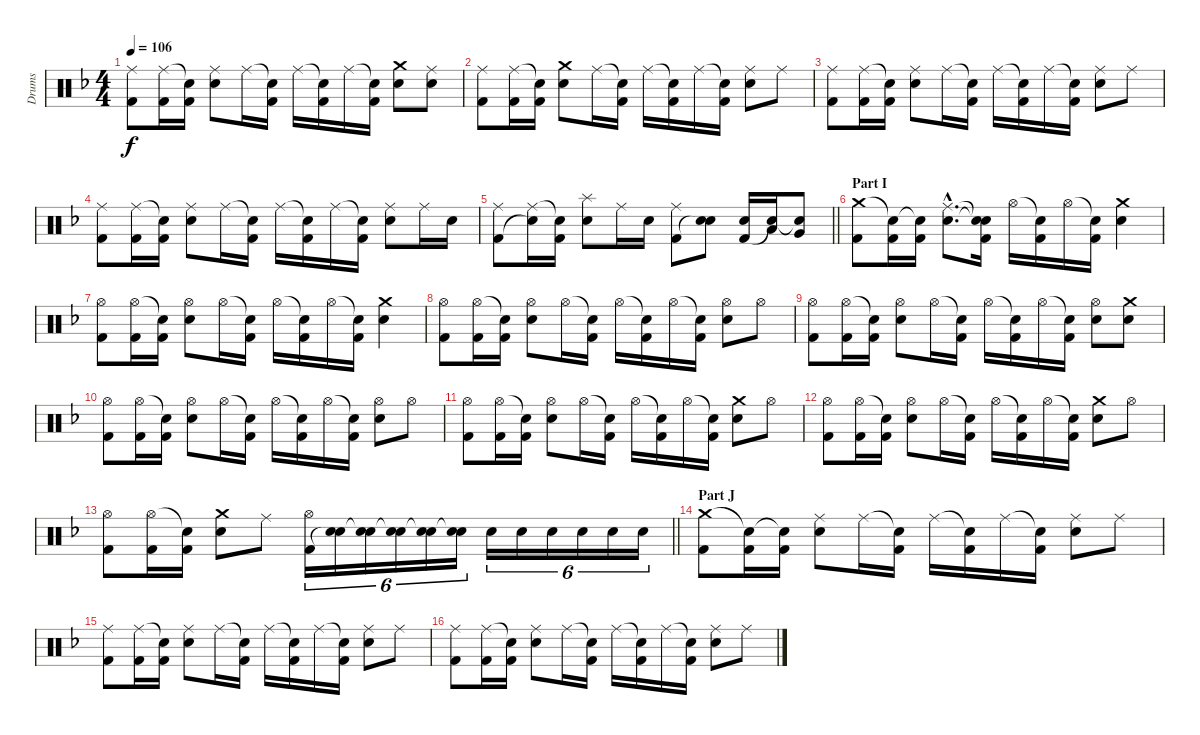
\track ("Drums" "Drums") {instrument percussion}
\staff {score}
\articulation defaults
\ts (4 4)
\tempo 106
\clef neutral
\ks f
("Ride (middle)" "Kick (hit) 2").8{dy f} ("Ride (middle)" "Kick (hit) 2").16 ("Snare (hit)"{t} "Kick (hit) 2").16 ("Ride (middle)" "Electric Snare (hit)").8 "Ride (middle)".16 ("Snare (hit)"{t} "Kick (hit) 2").16 "Ride (middle)".16 ("Snare (hit)"{t} "Kick (hit) 2").16 "Ride (middle)".16 ("Snare (hit)"{t} "Kick (hit) 2").16 ("Crash medium (hit)" "Electric Snare (hit)").8 ("Ride (middle)" "Electric Snare (hit)").8 |
("Ride (middle)" "Kick (hit) 2").8 ("Ride (middle)" "Kick (hit) 2").16 ("Snare (hit)"{t} "Kick (hit) 2").16 ("Crash medium (hit)" "Electric Snare (hit)").8 "Ride (middle)".16 ("Snare (hit)"{t} "Kick (hit) 2").16 "Ride (middle)".16 ("Snare (hit)"{t} "Kick (hit) 2").16 "Ride (middle)".16 ("Snare (hit)"{t} "Kick (hit) 2").16 ("Ride (middle)" "Electric Snare (hit)").8 "Ride (middle)".8 |
("Ride (middle)" "Kick (hit) 2").8 ("Ride (middle)" "Kick (hit) 2").16 ("Snare (hit)"{t} "Kick (hit) 2").16 ("Ride (middle)" "Electric Snare (hit)").8 "Ride (middle)".16 ("Snare (hit)"{t} "Kick (hit) 2").16 "Ride (middle)".16 ("Snare (hit)"{t} "Kick (hit) 2").16 "Ride (middle)".16 ("Snare (hit)"{t} "Kick (hit) 2").16 ("Ride (middle)" "Electric Snare (hit)").8 "Ride (middle)".8 |
("Ride (middle)" "Kick (hit) 2").8 ("Ride (middle)" "Kick (hit) 2").16 ("Snare (hit)"{t} "Kick (hit) 2").16 ("Ride (middle)" "Electric Snare (hit)").8 "Ride (middle)".16 ("Snare (hit)"{t} "Kick (hit) 2").16 "Ride (middle)".16 ("Snare (hit)"{t} "Kick (hit) 2").16 "Ride (middle)".16 ("Snare (hit)"{t} "Kick (hit) 2").16 ("Ride (middle)" "Electric Snare (hit)").8 "Ride (middle)".16 "Electric Snare (hit)".16 |
\barLineRight lightlight
("Ride (middle)" "Kick (hit) 2").8 ("Ride (middle)" "Snare (hit)"{t}).16 ("Snare (hit)"{t} "Kick (hit) 2").16 ("Splash (hit)" "Electric Snare (hit)").8 "Ride (middle)".16 "Electric Snare (hit)".16 ("Ride (middle)" "Kick (hit) 2").8 ("Electric Snare (hit)" "Snare (hit)"{t}).8 ("Electric Snare (hit)" "Kick (hit) 2").16 ("Low Tom (hit)" "Snare (hit)"{t}).16 ("Very Low Tom (hit)" "Snare (hit)"{t}).8 |
\section ("" "Part I")
("Crash medium (hit)" "Kick (hit) 2").8 ("Snare (hit)"{t} "Kick (hit) 2").16 ("Snare (hit)"{t} "Kick (hit) 2").16 ("Ride (middle)"{hac} "Electric Snare (hit)"{hac}).8{d} ("Snare (hit)"{t} "Snare (hit)"{t} "Kick (hit) 2").16 "Hi-Hat (open)".16 ("Snare (hit)"{t} "Kick (hit) 2").16 "Hi-Hat (open)".16 ("Snare (hit)"{t} "Kick (hit) 2").16 ("Crash medium (hit)" "Electric Snare (hit)").4 |
("Hi-Hat (open)" "Kick (hit) 2").8 ("Hi-Hat (open)" "Kick (hit) 2").16 ("Snare (hit)"{t} "Kick (hit) 2").16 ("Hi-Hat (open)" "Electric Snare (hit)").8 "Hi-Hat (open)".16 ("Snare (hit)"{t} "Kick (hit) 2").16 "Hi-Hat (open)".16 ("Snare (hit)"{t} "Kick (hit) 2").16 "Hi-Hat (open)".16 ("Snare (hit)"{t} "Kick (hit) 2").16 ("Crash medium (hit)" "Electric Snare (hit)").4 |
("Hi-Hat (open)" "Kick (hit) 2").8 ("Hi-Hat (open)" "Kick (hit) 2").16 ("Snare (hit)"{t} "Kick (hit) 2").16 ("Hi-Hat (open)" "Electric Snare (hit)").8 "Hi-Hat (open)".16 ("Snare (hit)"{t} "Kick (hit) 2").16 "Hi-Hat (open)".16 ("Snare (hit)"{t} "Kick (hit) 2").16 "Hi-Hat (open)".16 ("Snare (hit)"{t} "Kick (hit) 2").16 ("Hi-Hat (open)" "Electric Snare (hit)").8 "Hi-Hat (open)".8 |
("Hi-Hat (open)" "Kick (hit) 2").8 ("Hi-Hat (open)" "Kick (hit) 2").16 ("Snare (hit)"{t} "Kick (hit) 2").16 ("Hi-Hat (open)" "Electric Snare (hit)").8 "Hi-Hat (open)".16 ("Snare (hit)"{t} "Kick (hit) 2").16 "Hi-Hat (open)".16 ("Snare (hit)"{t} "Kick (hit) 2").16 "Hi-Hat (open)".16 ("Snare (hit)"{t} "Kick (hit) 2").16 ("Hi-Hat (open)" "Electric Snare (hit)").8 ("Crash medium (hit)" "Electric Snare (hit)").8 |
("Hi-Hat (open)" "Kick (hit) 2").8 ("Hi-Hat (open)" "Kick (hit) 2").16 ("Snare (hit)"{t} "Kick (hit) 2").16 ("Hi-Hat (open)" "Electric Snare (hit)").8 "Hi-Hat (open)".16 ("Snare (hit)"{t} "Kick (hit) 2").16 "Hi-Hat (open)".16 ("Snare (hit)"{t} "Kick (hit) 2").16 "Hi-Hat (open)".16 ("Snare (hit)"{t} "Kick (hit) 2").16 ("Hi-Hat (open)" "Electric Snare (hit)").8 "Hi-Hat (open)".8 |
("Hi-Hat (open)" "Kick (hit) 2").8 ("Hi-Hat (open)" "Kick (hit) 2").16 ("Snare (hit)"{t} "Kick (hit) 2").16 ("Hi-Hat (open)" "Electric Snare (hit)").8 "Hi-Hat (open)".16 ("Snare (hit)"{t} "Kick (hit) 2").16 "Hi-Hat (open)".16 ("Snare (hit)"{t} "Kick (hit) 2").16 "Hi-Hat (open)".16 ("Snare (hit)"{t} "Kick (hit) 2").16 ("Crash medium (hit)" "Electric Snare (hit)").8 "Hi-Hat (open)".8 |
("Hi-Hat (open)" "Kick (hit) 2").8 ("Hi-Hat (open)" "Kick (hit) 2").16 ("Snare (hit)"{t} "Kick (hit) 2").16 ("Hi-Hat (open)" "Electric Snare (hit)").8 "Hi-Hat (open)".16 ("Snare (hit)"{t} "Kick (hit) 2").16 "Hi-Hat (open)".16 ("Snare (hit)"{t} "Kick (hit) 2").16 "Hi-Hat (open)".16 ("Snare (hit)"{t} "Kick (hit) 2").16 ("Crash medium (hit)" "Electric Snare (hit)").8 "Hi-Hat (open)".8 |
\barLineRight lightlight
("Hi-Hat (open)" "Kick (hit) 2").8 ("Hi-Hat (open)" "Kick (hit) 2").16 ("Snare (hit)"{t} "Kick (hit) 2").16 ("Crash medium (hit)" "Electric Snare (hit)").8 "Ride (middle)".8 ("Hi-Hat (open)" "Kick (hit) 2").16{tu (6 4)} ("Electric Snare (hit)" "Snare (hit)"{t}).16{tu (6 4)} ("Electric Snare (hit)" "Snare (hit)"{t}).16{tu (6 4)} ("Electric Snare (hit)" "Snare (hit)"{t}).16{tu (6 4)} ("Electric Snare (hit)" "Snare (hit)"{t}).16{tu (6 4)} ("Electric Snare (hit)" "Snare (hit)"{t}).16{tu (6 4)} "Electric Snare (hit)".16{tu (6 4)} "Electric Snare (hit)".16{tu (6 4)} "Electric Snare (hit)".16{tu (6 4)} "Electric Snare (hit)".16{tu (6 4)} "Electric Snare (hit)".16{tu (6 4)} "Electric Snare (hit)".16{tu (6 4)} |
\section ("" "Part J")
("Crash medium (hit)" "Kick (hit) 2").8 ("Snare (hit)"{t} "Kick (hit) 2").16 ("Snare (hit)"{t} "Kick (hit) 2").16 ("Ride (middle)" "Electric Snare (hit)").8 "Ride (middle)".16 ("Snare (hit)"{t} "Kick (hit) 2").16 "Ride (middle)".16 ("Snare (hit)"{t} "Kick (hit) 2").16 "Ride (middle)".16 ("Snare (hit)"{t} "Kick (hit) 2").16 ("Ride (middle)" "Electric Snare (hit)").8 "Ride (middle)".8 |
("Ride (middle)" "Kick (hit) 2").8 ("Ride (middle)" "Kick (hit) 2").16 ("Snare (hit)"{t} "Kick (hit) 2").16 ("Ride (middle)" "Electric Snare (hit)").8 "Ride (middle)".16 ("Snare (hit)"{t} "Kick (hit) 2").16 "Ride (middle)".16 ("Snare (hit)"{t} "Kick (hit) 2").16 "Ride (middle)".16 ("Snare (hit)"{t} "Kick (hit) 2").16 ("Ride (middle)" "Electric Snare (hit)").8 "Ride (middle)".8 |
("Ride (middle)" "Kick (hit) 2").8 ("Ride (middle)" "Kick (hit) 2").16 ("Snare (hit)"{t} "Kick (hit) 2").16 ("Ride (middle)" "Electric Snare (hit)").8 "Ride (middle)".16 ("Snare (hit)"{t} "Kick (hit) 2").16 "Ride (middle)".16 ("Snare (hit)"{t} "Kick (hit) 2").16 "Ride (middle)".16 ("Snare (hit)"{t} "Kick (hit) 2").16 ("Ride (middle)" "Electric Snare (hit)").8 "Ride (middle)".8
